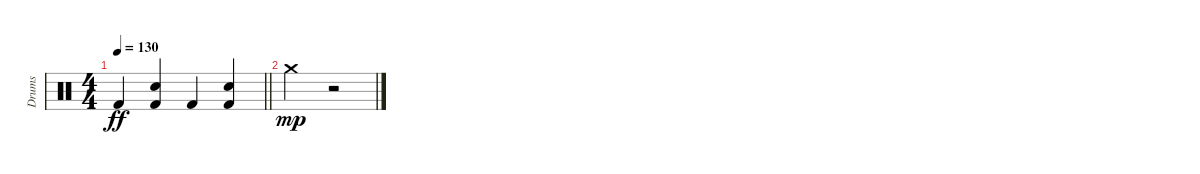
\track ("Drums" "Drums") {instrument percussion}
\staff {score}
\articulation defaults
\ts (4 4)
\tempo 130
\clef neutral
\barLineRight lightlight
\ks c "Kick (hit) 2".4{dy ff}
("Hand Clap (hit)" "Kick (hit) 2").4 "Kick (hit) 2".4 ("Hand Clap (hit)" "Kick (hit) 2").4 |
"Crash medium (hit)".2{dy mp} r.2
